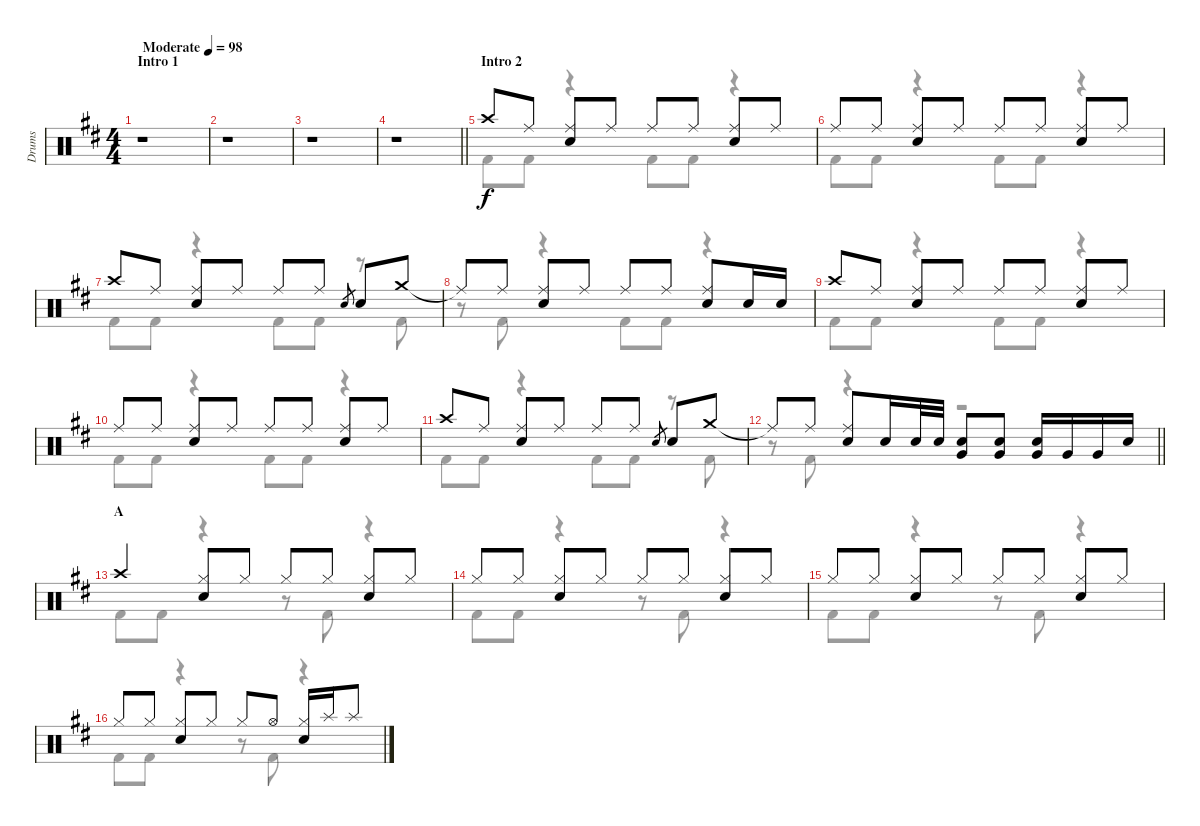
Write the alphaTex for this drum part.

\track ("Drums" "Drums") {instrument percussion}
\staff {score}
\articulation defaults
\voice
\ts (4 4)
\section ("" "Intro 1")
\tempo (98 "Moderate")
\clef neutral
\ks d
r.1{dy f} |
r.1 |
r.1 |
\barLineRight lightlight
r.1 |
\section ("" "Intro 2")
"Crash high (hit)".8 "Ride (middle)".8 ("Ride (middle)" "Snare (hit) 2").8 "Ride (middle)".8 "Ride (middle)".8 "Ride (middle)".8 ("Ride (middle)" "Snare (hit) 2").8 "Ride (middle)".8 |
"Ride (middle)".8 "Ride (middle)".8 ("Ride (middle)" "Snare (hit) 2").8 "Ride (middle)".8 "Ride (middle)".8 "Ride (middle)".8 ("Ride (middle)" "Snare (hit) 2").8 "Ride (middle)".8 |
"Crash high (hit)".8 "Ride (middle)".8 ("Ride (middle)" "Snare (hit) 2").8 "Ride (middle)".8 "Ride (middle)".8 "Ride (middle)".8 "Snare (hit) 2".8{gr} "Snare (hit) 2".8 "Crash medium (hit)".8 |
"Ride (middle)"{t}.8 "Ride (middle)".8 ("Ride (middle)" "Snare (hit) 2").8 "Ride (middle)".8 "Ride (middle)".8 "Ride (middle)".8 ("Ride (middle)" "Snare (hit) 2").8 "Snare (hit) 2".16 "Snare (hit) 2".16 |
"Crash high (hit)".8 "Ride (middle)".8 ("Ride (middle)" "Snare (hit) 2").8 "Ride (middle)".8 "Ride (middle)".8 "Ride (middle)".8 ("Ride (middle)" "Snare (hit) 2").8 "Ride (middle)".8 |
"Ride (middle)".8 "Ride (middle)".8 ("Ride (middle)" "Snare (hit) 2").8 "Ride (middle)".8 "Ride (middle)".8 "Ride (middle)".8 ("Ride (middle)" "Snare (hit) 2").8 "Ride (middle)".8 |
"Crash high (hit)".8 "Ride (middle)".8 ("Ride (middle)" "Snare (hit) 2").8 "Ride (middle)".8 "Ride (middle)".8 "Ride (middle)".8 "Snare (hit) 2".8{gr} "Snare (hit) 2".8 "Crash medium (hit)".8 |
\barLineRight lightlight "Ride (middle)"{t}.8 "Ride (middle)".8
("Ride (middle)" "Snare (hit) 2").8 "Snare (hit) 2".16 "Snare (hit) 2".32 "Snare (hit) 2".32 ("Snare (hit) 2" "Very Low Tom (hit)").8 ("Snare (hit) 2" "Very Low Tom (hit)").8 ("Snare (hit) 2" "Very Low Tom (hit)").16 "Very Low Tom (hit)".16 "Very Low Tom (hit)".16 "Snare (hit) 2".16 |
\section ("" "A")
"Crash high (hit)".4 ("Hi-Hat (closed)" "Snare (hit) 2").8 "Hi-Hat (closed)".8 "Hi-Hat (closed)".8 "Hi-Hat (closed)".8 ("Hi-Hat (closed)" "Snare (hit) 2").8 "Hi-Hat (closed)".8 |
"Hi-Hat (closed)".8 "Hi-Hat (closed)".8 ("Hi-Hat (closed)" "Snare (hit) 2").8 "Hi-Hat (closed)".8 "Hi-Hat (closed)".8 "Hi-Hat (closed)".8 ("Hi-Hat (closed)" "Snare (hit) 2").8 "Hi-Hat (closed)".8 |
"Hi-Hat (closed)".8 "Hi-Hat (closed)".8 ("Hi-Hat (closed)" "Snare (hit) 2").8 "Hi-Hat (closed)".8 "Hi-Hat (closed)".8 "Hi-Hat (closed)".8 ("Hi-Hat (closed)" "Snare (hit) 2").8 "Hi-Hat (closed)".8 |
"Hi-Hat (closed)".8 "Hi-Hat (closed)".8 ("Hi-Hat (closed)" "Snare (hit) 2").8 "Hi-Hat (closed)".8 "Hi-Hat (closed)".8 "Hi-Hat (open)".8 ("Hi-Hat (closed)" "Snare (hit) 2").16 "Splash (hit)".16 "Splash (hit)".8
\voice
\clef neutral
\ottava regular
\simile none
\ks d
r.1{dy f} |
r.1 |
r.1 |
\barLineRight lightlight
r.1 |
"Kick (hit) 2".8 "Kick (hit) 2".8 r.4 "Kick (hit) 2".8 "Kick (hit) 2".8 r.4 |
"Kick (hit) 2".8 "Kick (hit) 2".8 r.4 "Kick (hit) 2".8 "Kick (hit) 2".8 r.4 |
"Kick (hit) 2".8 "Kick (hit) 2".8 r.4 "Kick (hit) 2".8 "Kick (hit) 2".8 r.8 "Kick (hit) 2".8 |
r.8 "Kick (hit) 2".8 r.4 "Kick (hit) 2".8 "Kick (hit) 2".8 r.4 |
"Kick (hit) 2".8 "Kick (hit) 2".8 r.4 "Kick (hit) 2".8 "Kick (hit) 2".8 r.4 |
"Kick (hit) 2".8 "Kick (hit) 2".8 r.4 "Kick (hit) 2".8 "Kick (hit) 2".8 r.4 |
"Kick (hit) 2".8 "Kick (hit) 2".8 r.4 "Kick (hit) 2".8 "Kick (hit) 2".8 r.8 "Kick (hit) 2".8 |
\barLineRight lightlight
r.8 "Kick (hit) 2".8 r.4 r.2 |
"Kick (hit) 2".8 "Kick (hit) 2".8 r.4 r.8 "Kick (hit) 2".8 r.4 |
"Kick (hit) 2".8 "Kick (hit) 2".8 r.4 r.8 "Kick (hit) 2".8 r.4 |
"Kick (hit) 2".8 "Kick (hit) 2".8 r.4 r.8 "Kick (hit) 2".8 r.4 |
"Kick (hit) 2".8 "Kick (hit) 2".8 r.4 r.8 "Kick (hit) 2".8 r.4
